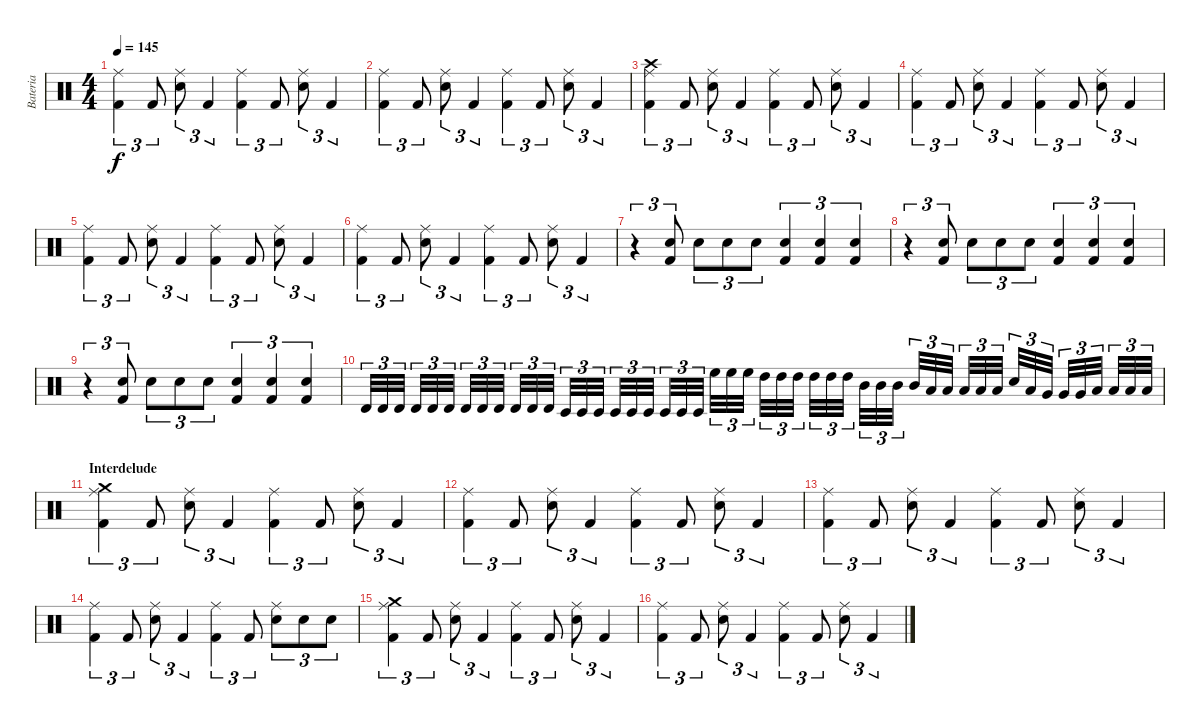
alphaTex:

\track ("Bateria" "Bateria") {instrument percussion}
\staff {score}
\articulation defaults
\ts (4 4)
\tempo 145
\clef neutral
\ks c
("Ride (middle)" "Kick (hit) 2").4{tu (3 2) dy f} "Kick (hit) 2".8{tu (3 2)} ("Ride (middle)" "Snare (hit) 2").8{tu (3 2)} "Kick (hit) 2".4{tu (3 2)} ("Ride (middle)" "Kick (hit) 2").4{tu (3 2)} "Kick (hit) 2".8{tu (3 2)} ("Ride (middle)" "Snare (hit) 2").8{tu (3 2)} "Kick (hit) 2".4{tu (3 2)} |
("Ride (middle)" "Kick (hit) 2").4{tu (3 2)} "Kick (hit) 2".8{tu (3 2)} ("Ride (middle)" "Snare (hit) 2").8{tu (3 2)} "Kick (hit) 2".4{tu (3 2)} ("Ride (middle)" "Kick (hit) 2").4{tu (3 2)} "Kick (hit) 2".8{tu (3 2)} ("Ride (middle)" "Snare (hit) 2").8{tu (3 2)} "Kick (hit) 2".4{tu (3 2)} |
("Ride (middle)" "Crash high (hit)" "Kick (hit) 2").4{tu (3 2)} "Kick (hit) 2".8{tu (3 2)} ("Ride (middle)" "Snare (hit) 2").8{tu (3 2)} "Kick (hit) 2".4{tu (3 2)} ("Ride (middle)" "Kick (hit) 2").4{tu (3 2)} "Kick (hit) 2".8{tu (3 2)} ("Ride (middle)" "Snare (hit) 2").8{tu (3 2)} "Kick (hit) 2".4{tu (3 2)} |
("Ride (middle)" "Kick (hit) 2").4{tu (3 2)} "Kick (hit) 2".8{tu (3 2)} ("Ride (middle)" "Snare (hit) 2").8{tu (3 2)} "Kick (hit) 2".4{tu (3 2)} ("Ride (middle)" "Kick (hit) 2").4{tu (3 2)} "Kick (hit) 2".8{tu (3 2)} ("Ride (middle)" "Snare (hit) 2").8{tu (3 2)} "Kick (hit) 2".4{tu (3 2)} |
("Ride (middle)" "Kick (hit) 2").4{tu (3 2)} "Kick (hit) 2".8{tu (3 2)} ("Ride (middle)" "Snare (hit) 2").8{tu (3 2)} "Kick (hit) 2".4{tu (3 2)} ("Ride (middle)" "Kick (hit) 2").4{tu (3 2)} "Kick (hit) 2".8{tu (3 2)} ("Ride (middle)" "Snare (hit) 2").8{tu (3 2)} "Kick (hit) 2".4{tu (3 2)} |
("Ride (middle)" "Kick (hit) 2").4{tu (3 2)} "Kick (hit) 2".8{tu (3 2)} ("Ride (middle)" "Snare (hit) 2").8{tu (3 2)} "Kick (hit) 2".4{tu (3 2)} ("Ride (middle)" "Kick (hit) 2").4{tu (3 2)} "Kick (hit) 2".8{tu (3 2)} ("Ride (middle)" "Snare (hit) 2").8{tu (3 2)} "Kick (hit) 2".4{tu (3 2)} |
r.4{tu (3 2)} ("Kick (hit) 2" "Snare (hit) 2").8{tu (3 2)} "Snare (hit) 2".8{tu (3 2)} "Snare (hit) 2".8{tu (3 2)} "Snare (hit) 2".8{tu (3 2)} ("Kick (hit) 2" "Snare (hit) 2").4{tu (3 2)} ("Kick (hit) 2" "Snare (hit) 2").4{tu (3 2)} ("Kick (hit) 2" "Snare (hit) 2").4{tu (3 2)} |
r.4{tu (3 2)} ("Kick (hit) 2" "Snare (hit) 2").8{tu (3 2)} "Snare (hit) 2".8{tu (3 2)} "Snare (hit) 2".8{tu (3 2)} "Snare (hit) 2".8{tu (3 2)} ("Kick (hit) 2" "Snare (hit) 2").4{tu (3 2)} ("Kick (hit) 2" "Snare (hit) 2").4{tu (3 2)} ("Kick (hit) 2" "Snare (hit) 2").4{tu (3 2)} |
r.4{tu (3 2)} ("Kick (hit) 2" "Snare (hit) 2").8{tu (3 2)} "Snare (hit) 2".8{tu (3 2)} "Snare (hit) 2".8{tu (3 2)} "Snare (hit) 2".8{tu (3 2)} ("Kick (hit) 2" "Snare (hit) 2").4{tu (3 2)} ("Kick (hit) 2" "Snare (hit) 2").4{tu (3 2)} ("Kick (hit) 2" "Snare (hit) 2").4{tu (3 2)} |
"Timbale high (hit)".32{tu (3 2)} "Timbale high (hit)".32{tu (3 2)} "Timbale high (hit)".32{tu (3 2)} "Timbale high (hit)".32{tu (3 2)} "Timbale high (hit)".32{tu (3 2)} "Timbale high (hit)".32{tu (3 2)} "Timbale high (hit)".32{tu (3 2)} "Timbale high (hit)".32{tu (3 2)} "Timbale high (hit)".32{tu (3 2)} "Timbale high (hit)".32{tu (3 2)} "Timbale high (hit)".32{tu (3 2)} "Timbale high (hit)".32{tu (3 2)} "Timbale low (hit)".32{tu (3 2)} "Timbale low (hit)".32{tu (3 2)} "Timbale low (hit)".32{tu (3 2)} "Timbale low (hit)".32{tu (3 2)} "Timbale low (hit)".32{tu (3 2)} "Timbale low (hit)".32{tu (3 2)} "Timbale low (hit)".32{tu (3 2)} "Timbale low (hit)".32{tu (3 2)} "Timbale low (hit)".32{tu (3 2)} "High Floor Tom (hit)".32{tu (3 2)} "High Floor Tom (hit)".32{tu (3 2)} "High Floor Tom (hit)".32{tu (3 2)} "High Tom (hit)".32{tu (3 2)} "High Tom (hit)".32{tu (3 2)} "High Tom (hit)".32{tu (3 2)} "High Tom (hit)".32{tu (3 2)} "High Tom (hit)".32{tu (3 2)} "High Tom (hit)".32{tu (3 2)} "Mid Tom (hit)".32{tu (3 2)} "Mid Tom (hit)".32{tu (3 2)} "Mid Tom (hit)".32{tu (3 2)} "Mid Tom (hit)".32{tu (3 2)} "Low Tom (hit)".32{tu (3 2)} "Low Tom (hit)".32{tu (3 2)} "Low Tom (hit)".32{tu (3 2)} "Low Tom (hit)".32{tu (3 2)} "Low Tom (hit)".32{tu (3 2)} "Snare (hit)".32{tu (3 2)} "Low Tom (hit)".32{tu (3 2)} "Very Low Tom (hit)".32{tu (3 2)} "Very Low Tom (hit)".32{tu (3 2)} "Very Low Tom (hit)".32{tu (3 2)} "Low Floor Tom (hit)".32{tu (3 2)} "Low Floor Tom (hit)".32{tu (3 2)} "Low Floor Tom (hit)".32{tu (3 2)} "Low Floor Tom (hit)".32{tu (3 2)} |
\section ("" "Interdelude")
("Ride (middle)" "Crash medium (hit)" "Kick (hit) 2").4{tu (3 2)} "Kick (hit) 2".8{tu (3 2)} ("Ride (middle)" "Snare (hit) 2").8{tu (3 2)} "Kick (hit) 2".4{tu (3 2)} ("Ride (middle)" "Kick (hit) 2").4{tu (3 2)} "Kick (hit) 2".8{tu (3 2)} ("Ride (middle)" "Snare (hit) 2").8{tu (3 2)} "Kick (hit) 2".4{tu (3 2)} |
("Ride (middle)" "Kick (hit) 2").4{tu (3 2)} "Kick (hit) 2".8{tu (3 2)} ("Ride (middle)" "Snare (hit) 2").8{tu (3 2)} "Kick (hit) 2".4{tu (3 2)} ("Ride (middle)" "Kick (hit) 2").4{tu (3 2)} "Kick (hit) 2".8{tu (3 2)} ("Ride (middle)" "Snare (hit) 2").8{tu (3 2)} "Kick (hit) 2".4{tu (3 2)} |
("Ride (middle)" "Kick (hit) 2").4{tu (3 2)} "Kick (hit) 2".8{tu (3 2)} ("Ride (middle)" "Snare (hit) 2").8{tu (3 2)} "Kick (hit) 2".4{tu (3 2)} ("Ride (middle)" "Kick (hit) 2").4{tu (3 2)} "Kick (hit) 2".8{tu (3 2)} ("Ride (middle)" "Snare (hit) 2").8{tu (3 2)} "Kick (hit) 2".4{tu (3 2)} |
("Ride (middle)" "Kick (hit) 2").4{tu (3 2)} "Kick (hit) 2".8{tu (3 2)} ("Ride (middle)" "Snare (hit) 2").8{tu (3 2)} "Kick (hit) 2".4{tu (3 2)} ("Ride (middle)" "Kick (hit) 2").4{tu (3 2)} "Kick (hit) 2".8{tu (3 2)} ("Ride (middle)" "Snare (hit) 2").8{tu (3 2)} "Snare (hit) 2".8{tu (3 2)} "Snare (hit) 2".8{tu (3 2)} |
("Ride (middle)" "Crash medium (hit)" "Kick (hit) 2").4{tu (3 2)} "Kick (hit) 2".8{tu (3 2)} ("Ride (middle)" "Snare (hit) 2").8{tu (3 2)} "Kick (hit) 2".4{tu (3 2)} ("Ride (middle)" "Kick (hit) 2").4{tu (3 2)} "Kick (hit) 2".8{tu (3 2)} ("Ride (middle)" "Snare (hit) 2").8{tu (3 2)} "Kick (hit) 2".4{tu (3 2)} |
("Ride (middle)" "Kick (hit) 2").4{tu (3 2)} "Kick (hit) 2".8{tu (3 2)} ("Ride (middle)" "Snare (hit) 2").8{tu (3 2)} "Kick (hit) 2".4{tu (3 2)} ("Ride (middle)" "Kick (hit) 2").4{tu (3 2)} "Kick (hit) 2".8{tu (3 2)} ("Ride (middle)" "Snare (hit) 2").8{tu (3 2)} "Kick (hit) 2".4{tu (3 2)}
